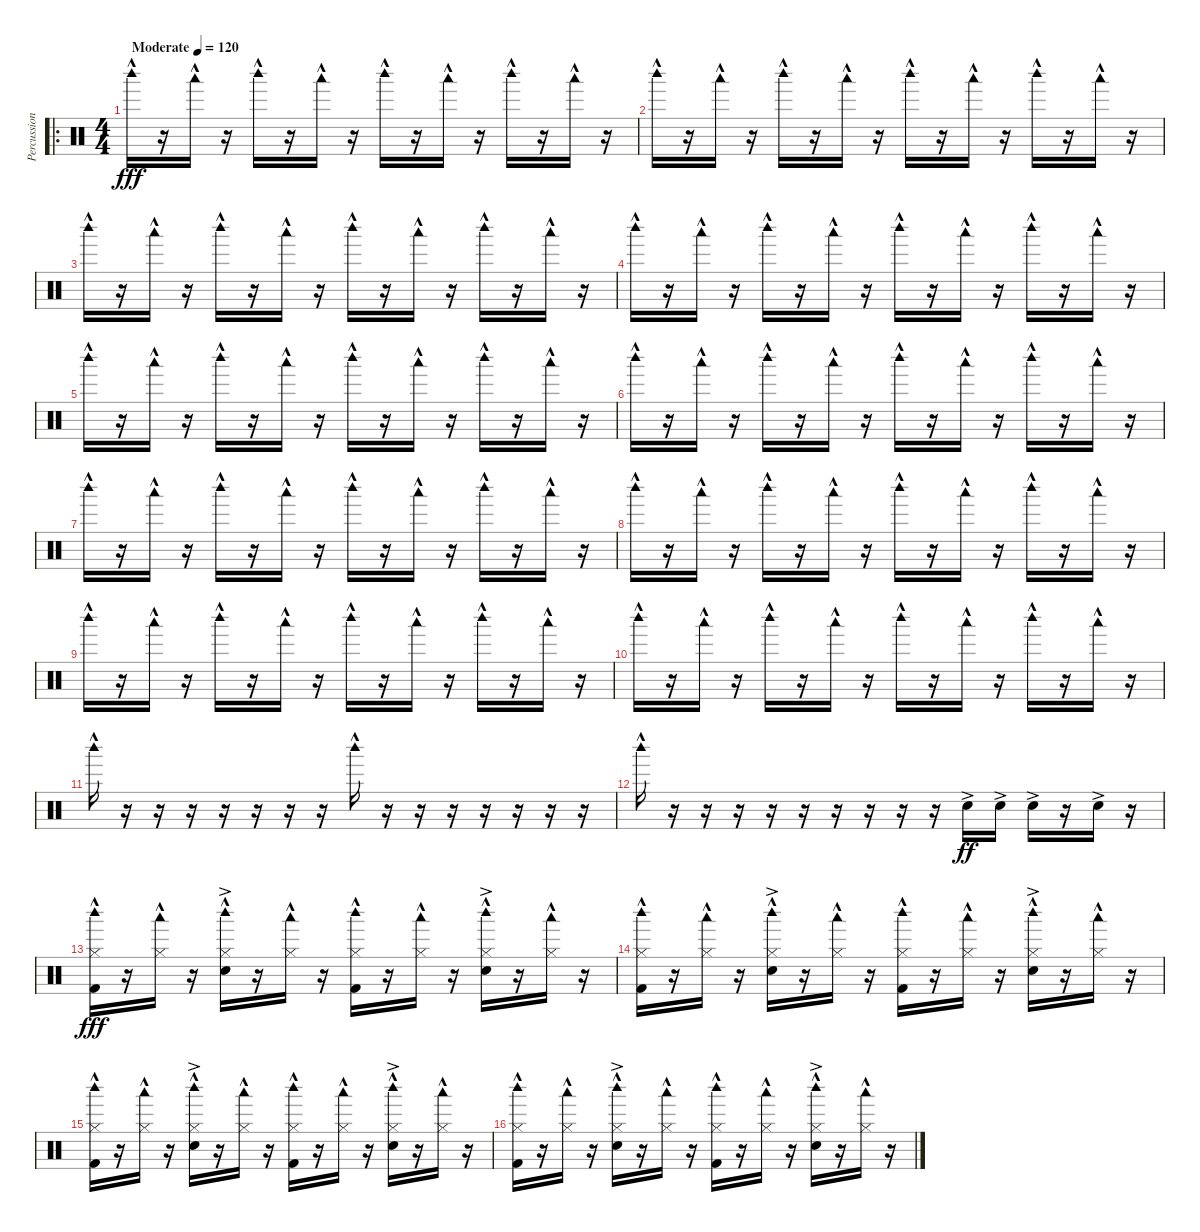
\track ("Percussion" "Percussion") {instrument percussion}
\staff {score}
\articulation defaults
\ro
\ts (4 4)
\tempo (120 "Moderate")
\clef neutral
\ks c "Woodblock high (hit)"{hac}.16{dy fff}
r.16 "Woodblock low (hit)"{hac}.16 r.16 "Woodblock high (hit)"{hac}.16 r.16 "Woodblock low (hit)"{hac}.16 r.16 "Woodblock high (hit)"{hac}.16 r.16 "Woodblock low (hit)"{hac}.16 r.16 "Woodblock high (hit)"{hac}.16 r.16 "Woodblock low (hit)"{hac}.16 r.16 |
"Woodblock high (hit)"{hac}.16 r.16 "Woodblock low (hit)"{hac}.16 r.16 "Woodblock high (hit)"{hac}.16 r.16 "Woodblock low (hit)"{hac}.16 r.16 "Woodblock high (hit)"{hac}.16 r.16 "Woodblock low (hit)"{hac}.16 r.16 "Woodblock high (hit)"{hac}.16 r.16 "Woodblock low (hit)"{hac}.16 r.16 |
"Woodblock high (hit)"{hac}.16 r.16 "Woodblock low (hit)"{hac}.16 r.16 "Woodblock high (hit)"{hac}.16 r.16 "Woodblock low (hit)"{hac}.16 r.16 "Woodblock high (hit)"{hac}.16 r.16 "Woodblock low (hit)"{hac}.16 r.16 "Woodblock high (hit)"{hac}.16 r.16 "Woodblock low (hit)"{hac}.16 r.16 |
"Woodblock high (hit)"{hac}.16 r.16 "Woodblock low (hit)"{hac}.16 r.16 "Woodblock high (hit)"{hac}.16 r.16 "Woodblock low (hit)"{hac}.16 r.16 "Woodblock high (hit)"{hac}.16 r.16 "Woodblock low (hit)"{hac}.16 r.16 "Woodblock high (hit)"{hac}.16 r.16 "Woodblock low (hit)"{hac}.16 r.16 |
"Woodblock high (hit)"{hac}.16 r.16 "Woodblock low (hit)"{hac}.16 r.16 "Woodblock high (hit)"{hac}.16 r.16 "Woodblock low (hit)"{hac}.16 r.16 "Woodblock high (hit)"{hac}.16 r.16 "Woodblock low (hit)"{hac}.16 r.16 "Woodblock high (hit)"{hac}.16 r.16 "Woodblock low (hit)"{hac}.16 r.16 |
"Woodblock high (hit)"{hac}.16 r.16 "Woodblock low (hit)"{hac}.16 r.16 "Woodblock high (hit)"{hac}.16 r.16 "Woodblock low (hit)"{hac}.16 r.16 "Woodblock high (hit)"{hac}.16 r.16 "Woodblock low (hit)"{hac}.16 r.16 "Woodblock high (hit)"{hac}.16 r.16 "Woodblock low (hit)"{hac}.16 r.16 |
"Woodblock high (hit)"{hac}.16 r.16 "Woodblock low (hit)"{hac}.16 r.16 "Woodblock high (hit)"{hac}.16 r.16 "Woodblock low (hit)"{hac}.16 r.16 "Woodblock high (hit)"{hac}.16 r.16 "Woodblock low (hit)"{hac}.16 r.16 "Woodblock high (hit)"{hac}.16 r.16 "Woodblock low (hit)"{hac}.16 r.16 |
"Woodblock high (hit)"{hac}.16 r.16 "Woodblock low (hit)"{hac}.16 r.16 "Woodblock high (hit)"{hac}.16 r.16 "Woodblock low (hit)"{hac}.16 r.16 "Woodblock high (hit)"{hac}.16 r.16 "Woodblock low (hit)"{hac}.16 r.16 "Woodblock high (hit)"{hac}.16 r.16 "Woodblock low (hit)"{hac}.16 r.16 |
"Woodblock high (hit)"{hac}.16 r.16 "Woodblock low (hit)"{hac}.16 r.16 "Woodblock high (hit)"{hac}.16 r.16 "Woodblock low (hit)"{hac}.16 r.16 "Woodblock high (hit)"{hac}.16 r.16 "Woodblock low (hit)"{hac}.16 r.16 "Woodblock high (hit)"{hac}.16 r.16 "Woodblock low (hit)"{hac}.16 r.16 |
"Woodblock high (hit)"{hac}.16 r.16 "Woodblock low (hit)"{hac}.16 r.16 "Woodblock high (hit)"{hac}.16 r.16 "Woodblock low (hit)"{hac}.16 r.16 "Woodblock high (hit)"{hac}.16 r.16 "Woodblock low (hit)"{hac}.16 r.16 "Woodblock high (hit)"{hac}.16 r.16 "Woodblock low (hit)"{hac}.16 r.16 |
"Woodblock high (hit)"{hac}.16 r.16 r.16 r.16 r.16 r.16 r.16 r.16 "Woodblock high (hit)"{hac}.16 r.16 r.16 r.16 r.16 r.16 r.16 r.16 |
"Woodblock high (hit)"{hac}.16 r.16 r.16 r.16 r.16 r.16 r.16 r.16 r.16 r.16 "Snare (hit) 2"{ac}.16{dy ff} "Snare (hit) 2"{ac}.16 "Snare (hit) 2"{ac}.16 r.16 "Snare (hit) 2"{ac}.16 r.16 |
("Hi-Hat (closed)"{hac} "Woodblock high (hit)"{hac} "Kick (hit) 2"{hac}).16{dy fff} r.16 ("Hi-Hat (closed)"{hac} "Woodblock low (hit)"{hac}).16 r.16 ("Hi-Hat (closed)"{hac} "Snare (hit) 2"{ac} "Woodblock high (hit)"{hac}).16 r.16 ("Hi-Hat (closed)"{hac} "Woodblock low (hit)"{hac}).16 r.16 ("Hi-Hat (closed)"{hac} "Woodblock high (hit)"{hac} "Kick (hit) 2"{hac}).16 r.16 ("Hi-Hat (closed)"{hac} "Woodblock low (hit)"{hac}).16 r.16 ("Hi-Hat (closed)"{hac} "Snare (hit) 2"{ac} "Woodblock high (hit)"{hac}).16 r.16 ("Hi-Hat (closed)"{hac} "Woodblock low (hit)"{hac}).16 r.16 |
("Hi-Hat (closed)"{hac} "Woodblock high (hit)"{hac} "Kick (hit) 2"{hac}).16 r.16 ("Hi-Hat (closed)"{hac} "Woodblock low (hit)"{hac}).16 r.16 ("Hi-Hat (closed)"{hac} "Snare (hit) 2"{ac} "Woodblock high (hit)"{hac}).16 r.16 ("Hi-Hat (closed)"{hac} "Woodblock low (hit)"{hac}).16 r.16 ("Hi-Hat (closed)"{hac} "Woodblock high (hit)"{hac} "Kick (hit) 2"{hac}).16 r.16 ("Hi-Hat (closed)"{hac} "Woodblock low (hit)"{hac}).16 r.16 ("Hi-Hat (closed)"{hac} "Snare (hit) 2"{ac} "Woodblock high (hit)"{hac}).16 r.16 ("Hi-Hat (closed)"{hac} "Woodblock low (hit)"{hac}).16 r.16 |
("Hi-Hat (closed)"{hac} "Woodblock high (hit)"{hac} "Kick (hit) 2"{hac}).16 r.16 ("Hi-Hat (closed)"{hac} "Woodblock low (hit)"{hac}).16 r.16 ("Hi-Hat (closed)"{hac} "Snare (hit) 2"{ac} "Woodblock high (hit)"{hac}).16 r.16 ("Hi-Hat (closed)"{hac} "Woodblock low (hit)"{hac}).16 r.16 ("Hi-Hat (closed)"{hac} "Woodblock high (hit)"{hac} "Kick (hit) 2"{hac}).16 r.16 ("Hi-Hat (closed)"{hac} "Woodblock low (hit)"{hac}).16 r.16 ("Hi-Hat (closed)"{hac} "Snare (hit) 2"{ac} "Woodblock high (hit)"{hac}).16 r.16 ("Hi-Hat (closed)"{hac} "Woodblock low (hit)"{hac}).16 r.16 |
("Hi-Hat (closed)"{hac} "Woodblock high (hit)"{hac} "Kick (hit) 2"{hac}).16 r.16 ("Hi-Hat (closed)"{hac} "Woodblock low (hit)"{hac}).16 r.16 ("Hi-Hat (closed)"{hac} "Snare (hit) 2"{ac} "Woodblock high (hit)"{hac}).16 r.16 ("Hi-Hat (closed)"{hac} "Woodblock low (hit)"{hac}).16 r.16 ("Hi-Hat (closed)"{hac} "Woodblock high (hit)"{hac} "Kick (hit) 2"{hac}).16 r.16 ("Hi-Hat (closed)"{hac} "Woodblock low (hit)"{hac}).16 r.16 ("Hi-Hat (closed)"{hac} "Snare (hit) 2"{ac} "Woodblock high (hit)"{hac}).16 r.16 ("Hi-Hat (closed)"{hac} "Woodblock low (hit)"{hac}).16 r.16
